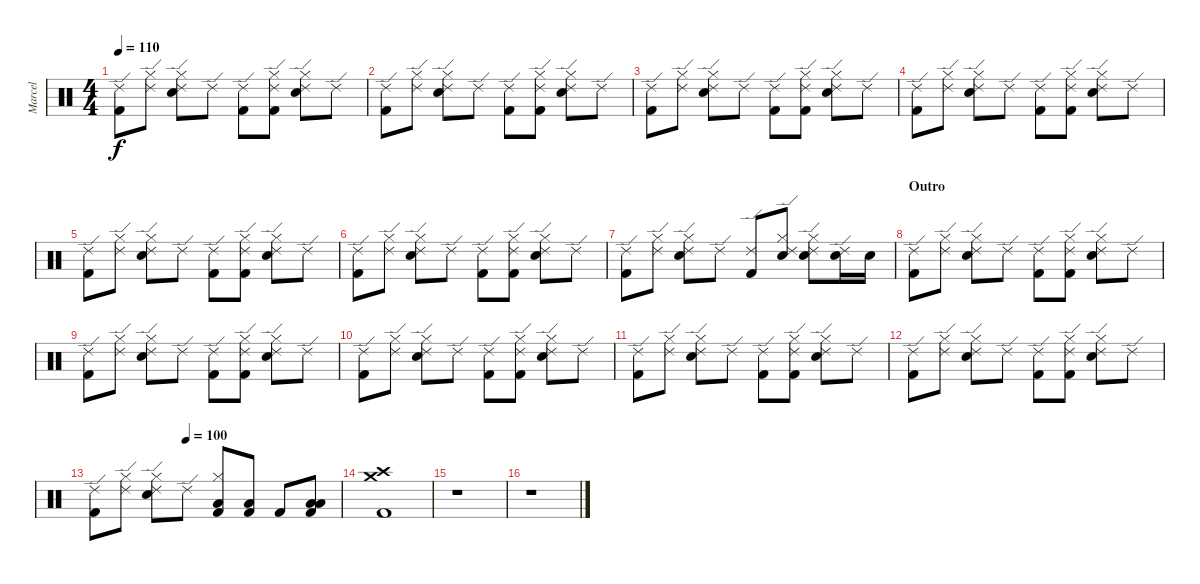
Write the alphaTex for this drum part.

\track ("Marcel" "Marcel") {instrument percussion}
\staff {score}
\articulation defaults
\ts (4 4)
\tempo 110
\clef neutral
\ks c
("Ride (edge) 2" "Kick (hit) 2").8{dy f} ("Hi-Hat (closed)" "Ride (edge) 2").8 ("Hi-Hat (closed)" "Ride (edge) 2" "Snare (hit) 2").8 "Ride (edge) 2".8 ("Ride (edge) 2" "Kick (hit) 2").8 ("Hi-Hat (closed)" "Ride (edge) 2" "Kick (hit) 2").8 ("Hi-Hat (closed)" "Ride (edge) 2" "Snare (hit) 2").8 "Ride (edge) 2".8 |
("Ride (edge) 2" "Kick (hit) 2").8 ("Hi-Hat (closed)" "Ride (edge) 2").8 ("Hi-Hat (closed)" "Ride (edge) 2" "Snare (hit) 2").8 "Ride (edge) 2".8 ("Ride (edge) 2" "Kick (hit) 2").8 ("Hi-Hat (closed)" "Ride (edge) 2" "Kick (hit) 2").8 ("Hi-Hat (closed)" "Ride (edge) 2" "Snare (hit) 2").8 "Ride (edge) 2".8 |
("Ride (edge) 2" "Kick (hit) 2").8 ("Hi-Hat (closed)" "Ride (edge) 2").8 ("Hi-Hat (closed)" "Ride (edge) 2" "Snare (hit) 2").8 "Ride (edge) 2".8 ("Ride (edge) 2" "Kick (hit) 2").8 ("Hi-Hat (closed)" "Ride (edge) 2" "Kick (hit) 2").8 ("Hi-Hat (closed)" "Ride (edge) 2" "Snare (hit) 2").8 "Ride (edge) 2".8 |
("Ride (edge) 2" "Kick (hit) 2").8 ("Hi-Hat (closed)" "Ride (edge) 2").8 ("Hi-Hat (closed)" "Ride (edge) 2" "Snare (hit) 2").8 "Ride (edge) 2".8 ("Ride (edge) 2" "Kick (hit) 2").8 ("Hi-Hat (closed)" "Ride (edge) 2" "Kick (hit) 2").8 ("Hi-Hat (closed)" "Ride (edge) 2" "Snare (hit) 2").8 "Ride (edge) 2".8 |
("Ride (edge) 2" "Kick (hit) 2").8 ("Hi-Hat (closed)" "Ride (edge) 2").8 ("Hi-Hat (closed)" "Ride (edge) 2" "Snare (hit) 2").8 "Ride (edge) 2".8 ("Ride (edge) 2" "Kick (hit) 2").8 ("Hi-Hat (closed)" "Ride (edge) 2" "Kick (hit) 2").8 ("Hi-Hat (closed)" "Ride (edge) 2" "Snare (hit) 2").8 "Ride (edge) 2".8 |
("Ride (edge) 2" "Kick (hit) 2").8 ("Hi-Hat (closed)" "Ride (edge) 2").8 ("Hi-Hat (closed)" "Ride (edge) 2" "Snare (hit) 2").8 "Ride (edge) 2".8 ("Ride (edge) 2" "Kick (hit) 2").8 ("Hi-Hat (closed)" "Ride (edge) 2" "Kick (hit) 2").8 ("Hi-Hat (closed)" "Ride (edge) 2" "Snare (hit) 2").8 "Ride (edge) 2".8 |
("Ride (edge) 2" "Kick (hit) 2").8 ("Hi-Hat (closed)" "Ride (edge) 2").8 ("Hi-Hat (closed)" "Ride (edge) 2" "Snare (hit) 2").8 "Ride (edge) 2".8 ("Ride (edge) 2" "Kick (hit) 2").8 ("Hi-Hat (closed)" "Ride (edge) 2" "Snare (hit) 2").8 ("Hi-Hat (closed)" "Ride (edge) 2" "Snare (hit) 2").8 ("Ride (edge) 2" "Snare (hit) 2").16 "Snare (hit) 2".16 |
\section ("" "Outro")
("Ride (edge) 2" "Kick (hit) 2").8 ("Hi-Hat (closed)" "Ride (edge) 2").8 ("Hi-Hat (closed)" "Ride (edge) 2" "Snare (hit) 2").8 "Ride (edge) 2".8 ("Ride (edge) 2" "Kick (hit) 2").8 ("Hi-Hat (closed)" "Ride (edge) 2" "Kick (hit) 2").8 ("Hi-Hat (closed)" "Ride (edge) 2" "Snare (hit) 2").8 "Ride (edge) 2".8 |
("Ride (edge) 2" "Kick (hit) 2").8 ("Hi-Hat (closed)" "Ride (edge) 2").8 ("Hi-Hat (closed)" "Ride (edge) 2" "Snare (hit) 2").8 "Ride (edge) 2".8 ("Ride (edge) 2" "Kick (hit) 2").8 ("Hi-Hat (closed)" "Ride (edge) 2" "Kick (hit) 2").8 ("Hi-Hat (closed)" "Ride (edge) 2" "Snare (hit) 2").8 "Ride (edge) 2".8 |
("Ride (edge) 2" "Kick (hit) 2").8 ("Hi-Hat (closed)" "Ride (edge) 2").8 ("Hi-Hat (closed)" "Ride (edge) 2" "Snare (hit) 2").8 "Ride (edge) 2".8 ("Ride (edge) 2" "Kick (hit) 2").8 ("Hi-Hat (closed)" "Ride (edge) 2" "Kick (hit) 2").8 ("Hi-Hat (closed)" "Ride (edge) 2" "Snare (hit) 2").8 "Ride (edge) 2".8 |
("Ride (edge) 2" "Kick (hit) 2").8 ("Hi-Hat (closed)" "Ride (edge) 2").8 ("Hi-Hat (closed)" "Ride (edge) 2" "Snare (hit) 2").8 "Ride (edge) 2".8 ("Ride (edge) 2" "Kick (hit) 2").8 ("Hi-Hat (closed)" "Ride (edge) 2" "Kick (hit) 2").8 ("Hi-Hat (closed)" "Ride (edge) 2" "Snare (hit) 2").8 "Ride (edge) 2".8 |
("Ride (edge) 2" "Kick (hit) 2").8 ("Hi-Hat (closed)" "Ride (edge) 2").8 ("Hi-Hat (closed)" "Ride (edge) 2" "Snare (hit) 2").8 "Ride (edge) 2".8 ("Ride (edge) 2" "Kick (hit) 2").8 ("Hi-Hat (closed)" "Ride (edge) 2" "Kick (hit) 2").8 ("Hi-Hat (closed)" "Ride (edge) 2" "Snare (hit) 2").8 "Ride (edge) 2".8 |
\tempo (100 0.375)
("Ride (edge) 2" "Kick (hit) 2").8 ("Hi-Hat (closed)" "Ride (edge) 2").8 ("Hi-Hat (closed)" "Ride (edge) 2" "Snare (hit) 2").8 "Ride (edge) 2".8{volume 10} ("Hi-Hat (closed)" "Low Tom (hit)" "Kick (hit) 2").8 ("Low Floor Tom (hit)" "Kick (hit) 2").8 "Kick (hit) 2".8 ("Low Floor Tom (hit)" "Low Tom (hit)" "Kick (hit) 2").8 |
("Crash medium (hit)" "Crash high (hit)" "Kick (hit) 2").1 |
r.1 |
r.1
